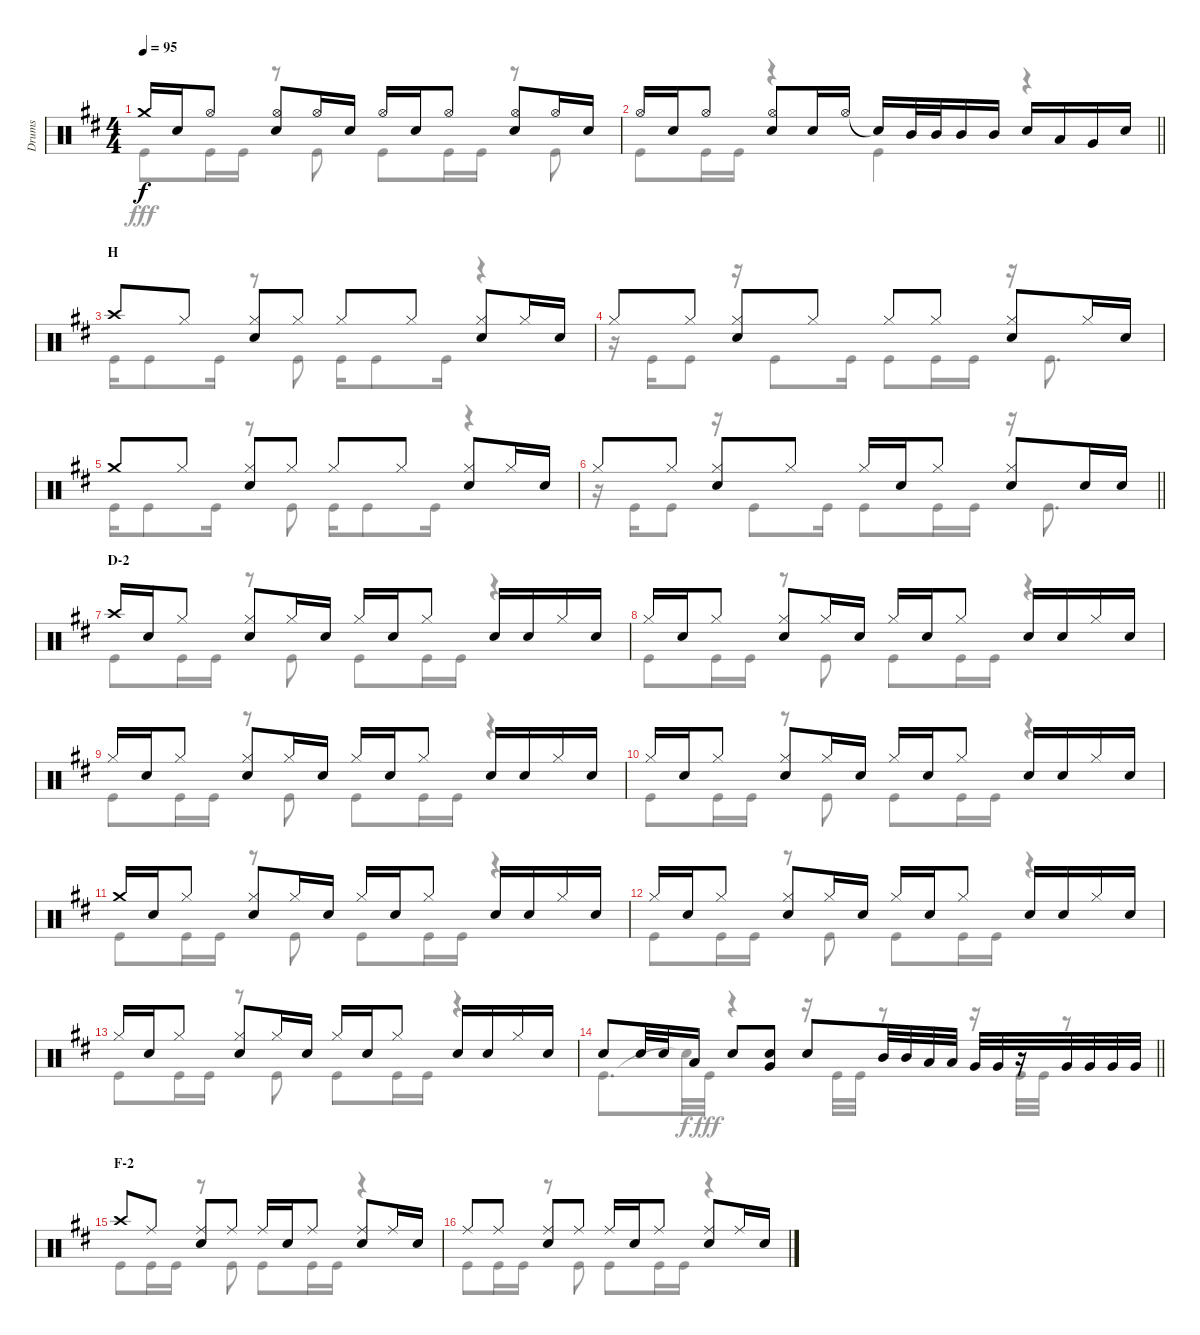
\track ("Drums" "Drums") {instrument percussion}
\staff {score}
\articulation defaults
\voice
\ts (4 4)
\tempo 95
\clef neutral
\ks d "Crash medium (hit)".16{dy f} "Snare (hit) 2".16 "Hi-Hat (open)".8
("Hi-Hat (open)" "Snare (hit) 2").8 "Hi-Hat (open)".16 "Snare (hit) 2".16 "Hi-Hat (open)".16 "Snare (hit) 2".16 "Hi-Hat (open)".8 ("Hi-Hat (open)" "Snare (hit) 2").8 "Hi-Hat (open)".16 "Snare (hit) 2".16 |
\barLineRight lightlight "Hi-Hat (open)".16 "Snare (hit) 2".16 "Hi-Hat (open)".8
("Hi-Hat (open)" "Snare (hit) 2").8 "Snare (hit) 2".16 "Hi-Hat (open)".16 "Snare (hit)"{t}.16 "Mid Tom (hit)".32 "Mid Tom (hit)".32 "Mid Tom (hit)".16 "Mid Tom (hit)".16 "Snare (hit) 2".16 "Low Tom (hit)".16 "Very Low Tom (hit)".16 "Snare (hit) 2".16 |
\section ("" "H")
"Crash high (hit)".8 "Hi-Hat (closed)".8 ("Hi-Hat (closed)" "Snare (hit) 2").8 "Hi-Hat (closed)".8 "Hi-Hat (closed)".8 "Hi-Hat (closed)".8 ("Hi-Hat (closed)" "Snare (hit) 2").8 "Hi-Hat (closed)".16 "Snare (hit) 2".16 |
"Hi-Hat (closed)".8 "Hi-Hat (closed)".8 ("Hi-Hat (closed)" "Snare (hit) 2").8 "Hi-Hat (closed)".8 "Hi-Hat (closed)".8 "Hi-Hat (closed)".8 ("Hi-Hat (closed)" "Snare (hit) 2").8 "Hi-Hat (closed)".16 "Snare (hit) 2".16 |
"Crash medium (hit)".8 "Hi-Hat (closed)".8 ("Hi-Hat (closed)" "Snare (hit) 2").8 "Hi-Hat (closed)".8 "Hi-Hat (closed)".8 "Hi-Hat (closed)".8 ("Hi-Hat (closed)" "Snare (hit) 2").8 "Hi-Hat (closed)".16 "Snare (hit) 2".16 |
\barLineRight lightlight "Hi-Hat (closed)".8 "Hi-Hat (closed)".8
("Hi-Hat (closed)" "Snare (hit) 2").8 "Hi-Hat (closed)".8 "Hi-Hat (closed)".16 "Snare (hit) 2".16 "Hi-Hat (closed)".8 ("Hi-Hat (closed)" "Snare (hit) 2").8 "Snare (hit) 2".16 "Snare (hit) 2".16 |
\section ("" "D-2")
"Crash high (hit)".16 "Snare (hit) 2".16 "Hi-Hat (closed)".8 ("Hi-Hat (closed)" "Snare (hit) 2").8 "Hi-Hat (closed)".16 "Snare (hit) 2".16 "Hi-Hat (closed)".16 "Snare (hit) 2".16 "Hi-Hat (closed)".8 "Snare (hit) 2".16 "Snare (hit) 2".16 "Hi-Hat (closed)".16 "Snare (hit) 2".16 |
"Hi-Hat (closed)".16 "Snare (hit) 2".16 "Hi-Hat (closed)".8 ("Hi-Hat (closed)" "Snare (hit) 2").8 "Hi-Hat (closed)".16 "Snare (hit) 2".16 "Hi-Hat (closed)".16 "Snare (hit) 2".16 "Hi-Hat (closed)".8 "Snare (hit) 2".16 "Snare (hit) 2".16 "Hi-Hat (closed)".16 "Snare (hit) 2".16 |
"Hi-Hat (closed)".16 "Snare (hit) 2".16 "Hi-Hat (closed)".8 ("Hi-Hat (closed)" "Snare (hit) 2").8 "Hi-Hat (closed)".16 "Snare (hit) 2".16 "Hi-Hat (closed)".16 "Snare (hit) 2".16 "Hi-Hat (closed)".8 "Snare (hit) 2".16 "Snare (hit) 2".16 "Hi-Hat (closed)".16 "Snare (hit) 2".16 |
"Hi-Hat (closed)".16 "Snare (hit) 2".16 "Hi-Hat (closed)".8 ("Hi-Hat (closed)" "Snare (hit) 2").8 "Hi-Hat (closed)".16 "Snare (hit) 2".16 "Hi-Hat (closed)".16 "Snare (hit) 2".16 "Hi-Hat (closed)".8 "Snare (hit) 2".16 "Snare (hit) 2".16 "Hi-Hat (closed)".16 "Snare (hit) 2".16 |
"Crash medium (hit)".16 "Snare (hit) 2".16 "Hi-Hat (closed)".8 ("Hi-Hat (closed)" "Snare (hit) 2").8 "Hi-Hat (closed)".16 "Snare (hit) 2".16 "Hi-Hat (closed)".16 "Snare (hit) 2".16 "Hi-Hat (closed)".8 "Snare (hit) 2".16 "Snare (hit) 2".16 "Hi-Hat (closed)".16 "Snare (hit) 2".16 |
"Hi-Hat (closed)".16 "Snare (hit) 2".16 "Hi-Hat (closed)".8 ("Hi-Hat (closed)" "Snare (hit) 2").8 "Hi-Hat (closed)".16 "Snare (hit) 2".16 "Hi-Hat (closed)".16 "Snare (hit) 2".16 "Hi-Hat (closed)".8 "Snare (hit) 2".16 "Snare (hit) 2".16 "Hi-Hat (closed)".16 "Snare (hit) 2".16 |
"Hi-Hat (closed)".16 "Snare (hit) 2".16 "Hi-Hat (closed)".8 ("Hi-Hat (closed)" "Snare (hit) 2").8 "Hi-Hat (closed)".16 "Snare (hit) 2".16 "Hi-Hat (closed)".16 "Snare (hit) 2".16 "Hi-Hat (closed)".8 "Snare (hit) 2".16 "Snare (hit) 2".16 "Hi-Hat (closed)".16 "Snare (hit) 2".16 |
\barLineRight lightlight "Snare (hit) 2".8 "Snare (hit) 2".32 "Snare (hit) 2".32 "Low Tom (hit)".16 "Snare (hit) 2".8
("Snare (hit) 2" "Very Low Tom (hit)").8 "Snare (hit) 2".8 "Mid Tom (hit)".32 "Mid Tom (hit)".32 "Low Tom (hit)".32 "Low Tom (hit)".32 "Very Low Tom (hit)".32 "Very Low Tom (hit)".32 r.16 "Very Low Tom (hit)".32 "Very Low Tom (hit)".32 "Very Low Tom (hit)".32 "Very Low Tom (hit)".32 |
\section ("" "F-2")
"Crash high (hit)".8 "Ride (middle)".8 ("Ride (middle)" "Snare (hit) 2").8 "Ride (middle)".8 "Ride (middle)".16 "Snare (hit) 2".16 "Ride (middle)".8 ("Ride (middle)" "Snare (hit) 2").8 "Ride (middle)".16 "Snare (hit) 2".16 |
"Ride (middle)".8 "Ride (middle)".8 ("Ride (middle)" "Snare (hit) 2").8 "Ride (middle)".8 "Ride (middle)".16 "Snare (hit) 2".16 "Ride (middle)".8 ("Ride (middle)" "Snare (hit) 2").8 "Ride (middle)".16 "Snare (hit) 2".16
\voice
\clef neutral
\ottava regular
\simile none
\ks d "Kick (hit)".8{dy fff} "Kick (hit)".16 "Kick (hit)".16
r.8 "Kick (hit)".8 "Kick (hit)".8 "Kick (hit)".16 "Kick (hit)".16 r.8 "Kick (hit)".8 |
\barLineRight lightlight "Kick (hit)".8 "Kick (hit)".16 "Kick (hit)".16
r.4 "Kick (hit)".4 r.4 |
"Kick (hit)".16 "Kick (hit)".8 "Kick (hit)".16 r.8 "Kick (hit)".8 "Kick (hit)".16 "Kick (hit)".8 "Kick (hit)".16 r.4 |
r.16 "Kick (hit)".16 "Kick (hit)".8 r.16 "Kick (hit)".8 "Kick (hit)".16 "Kick (hit)".8 "Kick (hit)".16 "Kick (hit)".16 r.16 "Kick (hit)".8{d} |
"Kick (hit)".16 "Kick (hit)".8 "Kick (hit)".16 r.8 "Kick (hit)".8 "Kick (hit)".16 "Kick (hit)".8 "Kick (hit)".16 r.4 |
\barLineRight lightlight
r.16 "Kick (hit)".16 "Kick (hit)".8 r.16 "Kick (hit)".8 "Kick (hit)".16 "Kick (hit)".8 "Kick (hit)".16 "Kick (hit)".16 r.16 "Kick (hit)".8{d} |
"Kick (hit)".8 "Kick (hit)".16 "Kick (hit)".16 r.8 "Kick (hit)".8 "Kick (hit)".8 "Kick (hit)".16 "Kick (hit)".16 r.4 |
"Kick (hit)".8 "Kick (hit)".16 "Kick (hit)".16 r.8 "Kick (hit)".8 "Kick (hit)".8 "Kick (hit)".16 "Kick (hit)".16 r.4 |
"Kick (hit)".8 "Kick (hit)".16 "Kick (hit)".16 r.8 "Kick (hit)".8 "Kick (hit)".8 "Kick (hit)".16 "Kick (hit)".16 r.4 |
"Kick (hit)".8 "Kick (hit)".16 "Kick (hit)".16 r.8 "Kick (hit)".8 "Kick (hit)".8 "Kick (hit)".16 "Kick (hit)".16 r.4 |
"Kick (hit)".8 "Kick (hit)".16 "Kick (hit)".16 r.8 "Kick (hit)".8 "Kick (hit)".8 "Kick (hit)".16 "Kick (hit)".16 r.4 |
"Kick (hit)".8 "Kick (hit)".16 "Kick (hit)".16 r.8 "Kick (hit)".8 "Kick (hit)".8 "Kick (hit)".16 "Kick (hit)".16 r.4 |
"Kick (hit)".8 "Kick (hit)".16 "Kick (hit)".16 r.8 "Kick (hit)".8 "Kick (hit)".8 "Kick (hit)".16 "Kick (hit)".16 r.4 |
\barLineRight lightlight "Kick (hit)".8{d} "Snare (hit)"{t}.32{dy f} "Kick (hit)".32{dy fff}
r.4 r.16 "Kick (hit)".32 "Kick (hit)".32 r.8 r.16 "Kick (hit)".32 "Kick (hit)".32 r.8 |
"Kick (hit)".8 "Kick (hit)".16 "Kick (hit)".16 r.8 "Kick (hit)".8 "Kick (hit)".8 "Kick (hit)".16 "Kick (hit)".16 r.4 |
"Kick (hit)".8 "Kick (hit)".16 "Kick (hit)".16 r.8 "Kick (hit)".8 "Kick (hit)".8 "Kick (hit)".16 "Kick (hit)".16 r.4
